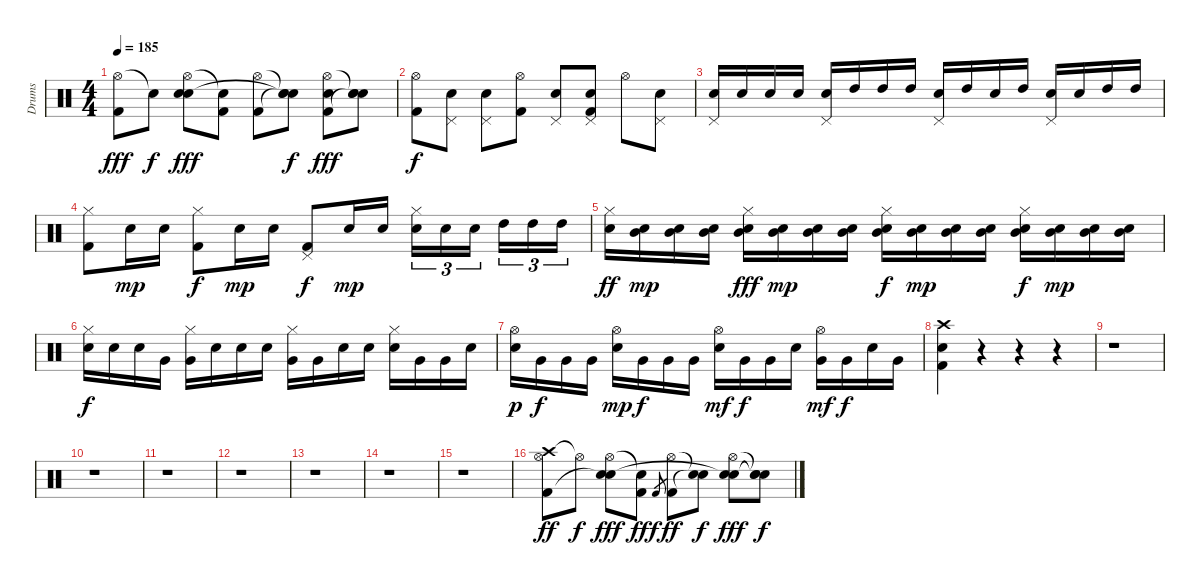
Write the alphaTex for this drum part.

\track ("Drums" "Drums") {instrument percussion}
\staff {score}
\articulation defaults
\ts (4 4)
\tempo 185
\clef neutral
\ks c
("Hi-Hat (open)" "Kick (hit) 2").8{dy fff} "Snare (hit)"{t}.8{dy f} ("Hi-Hat (open)" "Electric Snare (hit)" "Snare (hit)"{t}).8{dy fff} ("Snare (hit)"{t} "Kick (hit) 2").8 ("Hi-Hat (open)" "Kick (hit) 2").8 ("Snare (hit)"{t} "Snare (hit)"{t} "Snare (hit)"{t}).8{dy f} ("Hi-Hat (open)" "Electric Snare (hit)" "Kick (hit) 2").8{dy fff} ("Snare (hit)"{t} "Electric Snare (hit)" "Snare (hit)"{t}).8 |
("Hi-Hat (open)" "Kick (hit) 2").8{dy f} ("Pedal Hi-Hat (hit)" "Electric Snare (hit)").8 ("Pedal Hi-Hat (hit)" "Electric Snare (hit)").8 ("Hi-Hat (open)" "Kick (hit) 2").8 ("Pedal Hi-Hat (hit)" "Electric Snare (hit)").8 ("Pedal Hi-Hat (hit)" "Electric Snare (hit)" "Kick (hit) 2").8 "Hi-Hat (open)".8 ("Pedal Hi-Hat (hit)" "Electric Snare (hit)").8 |
("Pedal Hi-Hat (hit)" "Electric Snare (hit)").16 "Electric Snare (hit)".16 "Electric Snare (hit)".16 "Electric Snare (hit)".16 ("Pedal Hi-Hat (hit)" "Electric Snare (hit)").16 "High Tom (hit)".16 "High Tom (hit)".16 "High Tom (hit)".16 ("Pedal Hi-Hat (hit)" "Electric Snare (hit)").16 "High Tom (hit)".16 "Electric Snare (hit)".16 "High Tom (hit)".16 ("Pedal Hi-Hat (hit)" "Electric Snare (hit)").16 "Electric Snare (hit)".16 "High Tom (hit)".16 "High Tom (hit)".16 |
("Hi-Hat (closed)" "Kick (hit) 2").8 "Electric Snare (hit)".16{dy mp} "Electric Snare (hit)".16 ("Hi-Hat (closed)" "Kick (hit) 2").8{dy f} "Electric Snare (hit)".16{dy mp} "Electric Snare (hit)".16 ("Pedal Hi-Hat (hit)" "Kick (hit) 2").8{dy f} "Electric Snare (hit)".16{dy mp} "Electric Snare (hit)".16 ("Hi-Hat (closed)" "Electric Snare (hit)").16{tu (3 2)} "Electric Snare (hit)".16{tu (3 2)} "Electric Snare (hit)".16{tu (3 2)} "High Tom (hit)".16{tu (3 2)} "High Tom (hit)".16{tu (3 2)} "High Tom (hit)".16{tu (3 2)} |
("Hi-Hat (closed)" "Electric Snare (hit)").16{dy ff} ("Electric Snare (hit)" "Mid Tom (hit)").16{dy mp} ("Electric Snare (hit)" "Mid Tom (hit)").16 ("Electric Snare (hit)" "Mid Tom (hit)").16 ("Hi-Hat (closed)" "Electric Snare (hit)" "Mid Tom (hit)").16{dy fff} ("Electric Snare (hit)" "Mid Tom (hit)").16{dy mp} ("Electric Snare (hit)" "Mid Tom (hit)").16 ("Electric Snare (hit)" "Mid Tom (hit)").16 ("Hi-Hat (closed)" "Electric Snare (hit)" "Mid Tom (hit)").16{dy f} ("Electric Snare (hit)" "Mid Tom (hit)").16{dy mp} ("Electric Snare (hit)" "Mid Tom (hit)").16 ("Electric Snare (hit)" "Mid Tom (hit)").16 ("Hi-Hat (closed)" "Electric Snare (hit)" "Mid Tom (hit)").16{dy f} ("Electric Snare (hit)" "Mid Tom (hit)").16{dy mp} ("Electric Snare (hit)" "Mid Tom (hit)").16 ("Electric Snare (hit)" "Mid Tom (hit)").16 |
("Hi-Hat (closed)" "Electric Snare (hit)").16{dy f} "Electric Snare (hit)".16 "Electric Snare (hit)".16 "Very Low Tom (hit)".16 ("Hi-Hat (closed)" "Very Low Tom (hit)").16 "Electric Snare (hit)".16 "Electric Snare (hit)".16 "Electric Snare (hit)".16 ("Hi-Hat (closed)" "Very Low Tom (hit)").16 "Very Low Tom (hit)".16 "Electric Snare (hit)".16 "Electric Snare (hit)".16 ("Hi-Hat (closed)" "Electric Snare (hit)").16 "Very Low Tom (hit)".16 "Very Low Tom (hit)".16 "Electric Snare (hit)".16 |
("Hi-Hat (open)" "Electric Snare (hit)").16{dy p} "Very Low Tom (hit)".16{dy f} "Very Low Tom (hit)".16 "Very Low Tom (hit)".16 ("Hi-Hat (open)" "Electric Snare (hit)").16{dy mp} "Very Low Tom (hit)".16{dy f} "Very Low Tom (hit)".16 "Very Low Tom (hit)".16 ("Hi-Hat (open)" "Electric Snare (hit)").16{dy mf} "Very Low Tom (hit)".16{dy f} "Very Low Tom (hit)".16 "Electric Snare (hit)".16 ("Hi-Hat (open)" "Very Low Tom (hit)").16{dy mf} "Very Low Tom (hit)".16{dy f} "Electric Snare (hit)".16 "Very Low Tom (hit)".16 |
("Crash high (hit)" "Electric Snare (hit)" "Kick (hit) 2").4 r.4 r.4 r.4 |
r.1 |
r.1 |
r.1 |
r.1 |
r.1 |
r.1 |
r.1 |
("Crash high (hit)" "Hi-Hat (open)" "Kick (hit) 2").8{dy ff} "Hi-Hat (open)"{t}.8{dy f} ("Hi-Hat (open)" "Electric Snare (hit)" "Snare (hit)"{t}).8{dy fff} ("Snare (hit)"{t} "Kick (hit) 2").8{dy ff} "Kick (hit) 2".8{gr dy f} ("Hi-Hat (open)" "Kick (hit) 2").8{dy ff} ("Snare (hit)"{t} "Snare (hit)"{t}).8{dy f} ("Hi-Hat (open)" "Electric Snare (hit)" "Snare (hit)"{t}).8{dy fff} ("Snare (hit)"{t} "Snare (hit)"{t} "Snare (hit)"{t}).8{dy f}
